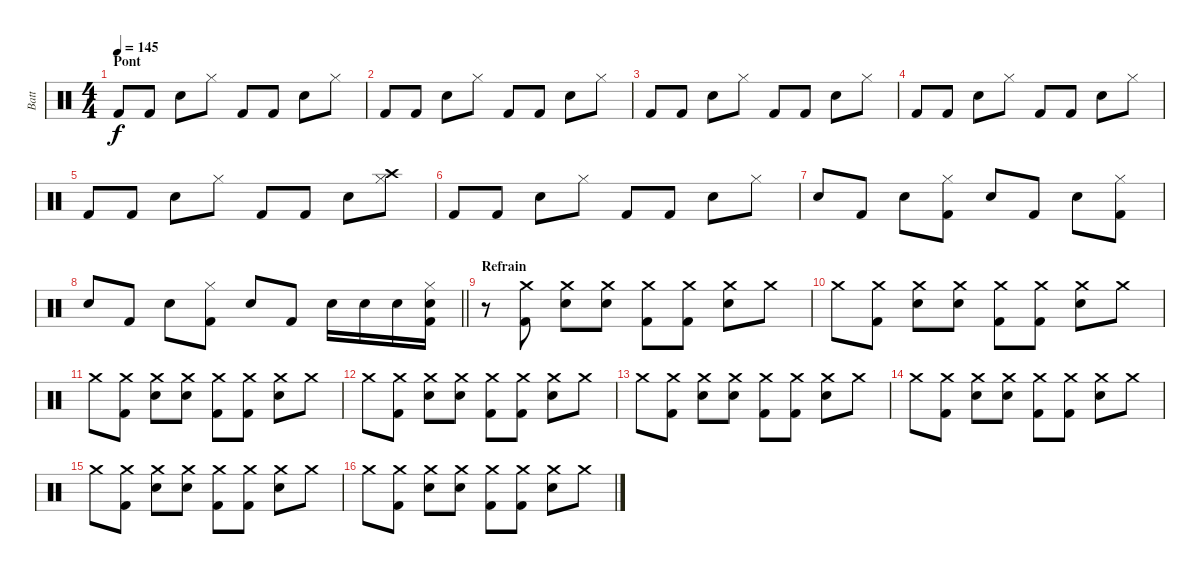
\track ("Batt" "Batt") {instrument percussion}
\staff {score}
\articulation defaults
\ts (4 4)
\section ("" "Pont")
\tempo 145
\clef neutral
\ks c "Kick (hit) 2".8{dy f} "Kick (hit) 2".8 "Snare (hit) 2".8 "Hi-Hat (closed)".8 "Kick (hit) 2".8 "Kick (hit) 2".8 "Snare (hit) 2".8 "Hi-Hat (closed)".8
|
"Kick (hit) 2".8 "Kick (hit) 2".8 "Snare (hit) 2".8 "Hi-Hat (closed)".8 "Kick (hit) 2".8 "Kick (hit) 2".8 "Snare (hit) 2".8 "Hi-Hat (closed)".8 |
"Kick (hit) 2".8 "Kick (hit) 2".8 "Snare (hit) 2".8 "Hi-Hat (closed)".8 "Kick (hit) 2".8 "Kick (hit) 2".8 "Snare (hit) 2".8 "Hi-Hat (closed)".8 |
"Kick (hit) 2".8 "Kick (hit) 2".8 "Snare (hit) 2".8 "Hi-Hat (closed)".8 "Kick (hit) 2".8 "Kick (hit) 2".8 "Snare (hit) 2".8 "Hi-Hat (closed)".8 |
"Kick (hit) 2".8 "Kick (hit) 2".8 "Snare (hit) 2".8 "Hi-Hat (closed)".8 "Kick (hit) 2".8 "Kick (hit) 2".8 "Snare (hit) 2".8 ("Hi-Hat (closed)" "Crash high (hit)").8 |
"Kick (hit) 2".8 "Kick (hit) 2".8 "Snare (hit) 2".8 "Hi-Hat (closed)".8 "Kick (hit) 2".8 "Kick (hit) 2".8 "Snare (hit) 2".8 "Hi-Hat (closed)".8 |
"Snare (hit) 2".8 "Kick (hit) 2".8 "Snare (hit) 2".8 ("Hi-Hat (closed)" "Kick (hit) 2").8 "Snare (hit) 2".8 "Kick (hit) 2".8 "Snare (hit) 2".8 ("Hi-Hat (closed)" "Kick (hit) 2").8 |
\barLineRight lightlight "Snare (hit) 2".8 "Kick (hit) 2".8 "Snare (hit) 2".8
("Hi-Hat (closed)" "Kick (hit) 2").8 "Snare (hit) 2".8 "Kick (hit) 2".8 "Snare (hit) 2".16 "Snare (hit) 2".16 "Snare (hit) 2".16 ("Hi-Hat (closed)" "Snare (hit) 2" "Kick (hit) 2").16 |
\section ("" "Refrain")
r.8 ("Crash medium (hit)" "Kick (hit) 2").8 ("Crash medium (hit)" "Snare (hit) 2").8 ("Crash medium (hit)" "Snare (hit) 2").8 ("Crash medium (hit)" "Kick (hit) 2").8 ("Crash medium (hit)" "Kick (hit) 2").8 ("Crash medium (hit)" "Snare (hit) 2").8 "Crash medium (hit)".8 |
"Crash medium (hit)".8 ("Crash medium (hit)" "Kick (hit) 2").8 ("Crash medium (hit)" "Snare (hit) 2").8 ("Crash medium (hit)" "Snare (hit) 2").8 ("Crash medium (hit)" "Kick (hit) 2").8 ("Crash medium (hit)" "Kick (hit) 2").8 ("Crash medium (hit)" "Snare (hit) 2").8 "Crash medium (hit)".8 |
"Crash medium (hit)".8 ("Crash medium (hit)" "Kick (hit) 2").8 ("Crash medium (hit)" "Snare (hit) 2").8 ("Crash medium (hit)" "Snare (hit) 2").8 ("Crash medium (hit)" "Kick (hit) 2").8 ("Crash medium (hit)" "Kick (hit) 2").8 ("Crash medium (hit)" "Snare (hit) 2").8 "Crash medium (hit)".8 |
"Crash medium (hit)".8 ("Crash medium (hit)" "Kick (hit) 2").8 ("Crash medium (hit)" "Snare (hit) 2").8 ("Crash medium (hit)" "Snare (hit) 2").8 ("Crash medium (hit)" "Kick (hit) 2").8 ("Crash medium (hit)" "Kick (hit) 2").8 ("Crash medium (hit)" "Snare (hit) 2").8 "Crash medium (hit)".8 |
"Crash medium (hit)".8 ("Crash medium (hit)" "Kick (hit) 2").8 ("Crash medium (hit)" "Snare (hit) 2").8 ("Crash medium (hit)" "Snare (hit) 2").8 ("Crash medium (hit)" "Kick (hit) 2").8 ("Crash medium (hit)" "Kick (hit) 2").8 ("Crash medium (hit)" "Snare (hit) 2").8 "Crash medium (hit)".8 |
"Crash medium (hit)".8 ("Crash medium (hit)" "Kick (hit) 2").8 ("Crash medium (hit)" "Snare (hit) 2").8 ("Crash medium (hit)" "Snare (hit) 2").8 ("Crash medium (hit)" "Kick (hit) 2").8 ("Crash medium (hit)" "Kick (hit) 2").8 ("Crash medium (hit)" "Snare (hit) 2").8 "Crash medium (hit)".8 |
"Crash medium (hit)".8 ("Crash medium (hit)" "Kick (hit) 2").8 ("Crash medium (hit)" "Snare (hit) 2").8 ("Crash medium (hit)" "Snare (hit) 2").8 ("Crash medium (hit)" "Kick (hit) 2").8 ("Crash medium (hit)" "Kick (hit) 2").8 ("Crash medium (hit)" "Snare (hit) 2").8 "Crash medium (hit)".8 |
"Crash medium (hit)".8 ("Crash medium (hit)" "Kick (hit) 2").8 ("Crash medium (hit)" "Snare (hit) 2").8 ("Crash medium (hit)" "Snare (hit) 2").8 ("Crash medium (hit)" "Kick (hit) 2").8 ("Crash medium (hit)" "Kick (hit) 2").8 ("Crash medium (hit)" "Snare (hit) 2").8 "Crash medium (hit)".8
